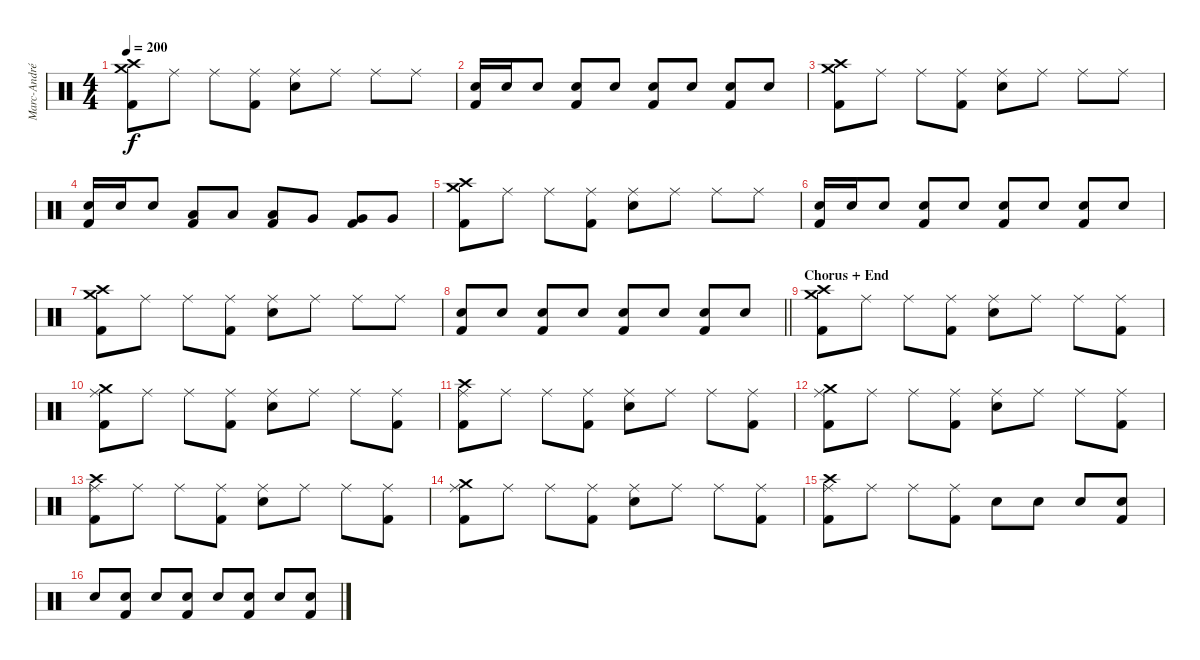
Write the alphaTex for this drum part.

\track ("Marc-André Barabé" "Marc-André") {instrument percussion}
\staff {score}
\articulation defaults
\ts (4 4)
\tempo 200
\clef neutral
\ks c
("Crash high (hit)" "Crash medium (hit)" "Kick (hit) 2").8{dy f} "Ride (middle)".8 "Ride (middle)".8 ("Ride (middle)" "Kick (hit) 2"{tr (36 32)}).8 ("Ride (middle)" "Electric Snare (hit)").8 "Ride (middle)".8 "Ride (middle)".8 "Ride (middle)".8 |
("Electric Snare (hit)" "Kick (hit) 2").16 "Electric Snare (hit)".16 "Electric Snare (hit)".8 ("Electric Snare (hit)" "Kick (hit) 2").8 "Electric Snare (hit)".8 ("Electric Snare (hit)" "Kick (hit) 2").8 "Electric Snare (hit)".8 ("Electric Snare (hit)" "Kick (hit) 2").8 "Electric Snare (hit)".8 |
("Crash high (hit)" "Crash medium (hit)" "Kick (hit) 2").8 "Ride (middle)".8 "Ride (middle)".8 ("Ride (middle)" "Kick (hit) 2"{tr (36 32)}).8 ("Ride (middle)" "Electric Snare (hit)").8 "Ride (middle)".8 "Ride (middle)".8 "Ride (middle)".8 |
("Electric Snare (hit)" "Kick (hit) 2").16 "Electric Snare (hit)".16 "Electric Snare (hit)".8 ("Low Tom (hit)" "Kick (hit) 2").8 "Low Tom (hit)".8 ("Low Tom (hit)" "Kick (hit) 2").8 "Very Low Tom (hit)".8 ("Very Low Tom (hit)" "Kick (hit) 2").8 "Very Low Tom (hit)".8 |
("Crash high (hit)" "Crash medium (hit)" "Kick (hit) 2").8 "Ride (middle)".8 "Ride (middle)".8 ("Ride (middle)" "Kick (hit) 2"{tr (36 32)}).8 ("Ride (middle)" "Electric Snare (hit)").8 "Ride (middle)".8 "Ride (middle)".8 "Ride (middle)".8 |
("Electric Snare (hit)" "Kick (hit) 2").16 "Electric Snare (hit)".16 "Electric Snare (hit)".8 ("Electric Snare (hit)" "Kick (hit) 2").8 "Electric Snare (hit)".8 ("Electric Snare (hit)" "Kick (hit) 2").8 "Electric Snare (hit)".8 ("Electric Snare (hit)" "Kick (hit) 2").8 "Electric Snare (hit)".8 |
("Crash high (hit)" "Crash medium (hit)" "Kick (hit) 2").8 "Ride (middle)".8 "Ride (middle)".8 ("Ride (middle)" "Kick (hit) 2"{tr (36 32)}).8 ("Ride (middle)" "Electric Snare (hit)").8 "Ride (middle)".8 "Ride (middle)".8 "Ride (middle)".8 |
\barLineRight lightlight
("Electric Snare (hit)" "Kick (hit) 2").8 "Electric Snare (hit)".8 ("Electric Snare (hit)" "Kick (hit) 2").8 "Electric Snare (hit)".8 ("Electric Snare (hit)" "Kick (hit) 2").8 "Electric Snare (hit)".8 ("Electric Snare (hit)" "Kick (hit) 2").8 "Electric Snare (hit)".8 |
\section ("" "Chorus + End")
("Crash high (hit)" "Crash medium (hit)" "Kick (hit) 2").8 "Ride (middle)".8 "Ride (middle)".8 ("Ride (middle)" "Kick (hit) 2"{tr (36 32)}).8 ("Ride (middle)" "Electric Snare (hit)").8 "Ride (middle)".8 "Ride (middle)".8 ("Ride (middle)" "Kick (hit) 2").8 |
("Crash medium (hit)" "Ride (middle)" "Kick (hit) 2").8 "Ride (middle)".8 "Ride (middle)".8 ("Ride (middle)" "Kick (hit) 2"{tr (36 32)}).8 ("Ride (middle)" "Electric Snare (hit)").8 "Ride (middle)".8 "Ride (middle)".8 ("Ride (middle)" "Kick (hit) 2").8 |
("Crash high (hit)" "Ride (middle)" "Kick (hit) 2").8 "Ride (middle)".8 "Ride (middle)".8 ("Ride (middle)" "Kick (hit) 2"{tr (36 32)}).8 ("Ride (middle)" "Electric Snare (hit)").8 "Ride (middle)".8 "Ride (middle)".8 ("Ride (middle)" "Kick (hit) 2").8 |
("Crash medium (hit)" "Ride (middle)" "Kick (hit) 2").8 "Ride (middle)".8 "Ride (middle)".8 ("Ride (middle)" "Kick (hit) 2"{tr (36 32)}).8 ("Ride (middle)" "Electric Snare (hit)").8 "Ride (middle)".8 "Ride (middle)".8 ("Ride (middle)" "Kick (hit) 2").8 |
("Crash high (hit)" "Ride (middle)" "Kick (hit) 2").8 "Ride (middle)".8 "Ride (middle)".8 ("Ride (middle)" "Kick (hit) 2"{tr (36 32)}).8 ("Ride (middle)" "Electric Snare (hit)").8 "Ride (middle)".8 "Ride (middle)".8 ("Ride (middle)" "Kick (hit) 2").8 |
("Crash medium (hit)" "Ride (middle)" "Kick (hit) 2").8 "Ride (middle)".8 "Ride (middle)".8 ("Ride (middle)" "Kick (hit) 2"{tr (36 32)}).8 ("Ride (middle)" "Electric Snare (hit)").8 "Ride (middle)".8 "Ride (middle)".8 ("Ride (middle)" "Kick (hit) 2").8 |
("Crash high (hit)" "Ride (middle)" "Kick (hit) 2").8 "Ride (middle)".8 "Ride (middle)".8 ("Ride (middle)" "Kick (hit) 2"{tr (36 32)}).8 "Electric Snare (hit)".8 "Electric Snare (hit)".8 "Electric Snare (hit)".8 ("Electric Snare (hit)" "Kick (hit) 2").8 |
"Electric Snare (hit)".8 ("Electric Snare (hit)" "Kick (hit) 2").8 "Electric Snare (hit)".8 ("Electric Snare (hit)" "Kick (hit) 2").8 "Electric Snare (hit)".8 ("Electric Snare (hit)" "Kick (hit) 2").8 "Electric Snare (hit)".8 ("Electric Snare (hit)" "Kick (hit) 2").8
